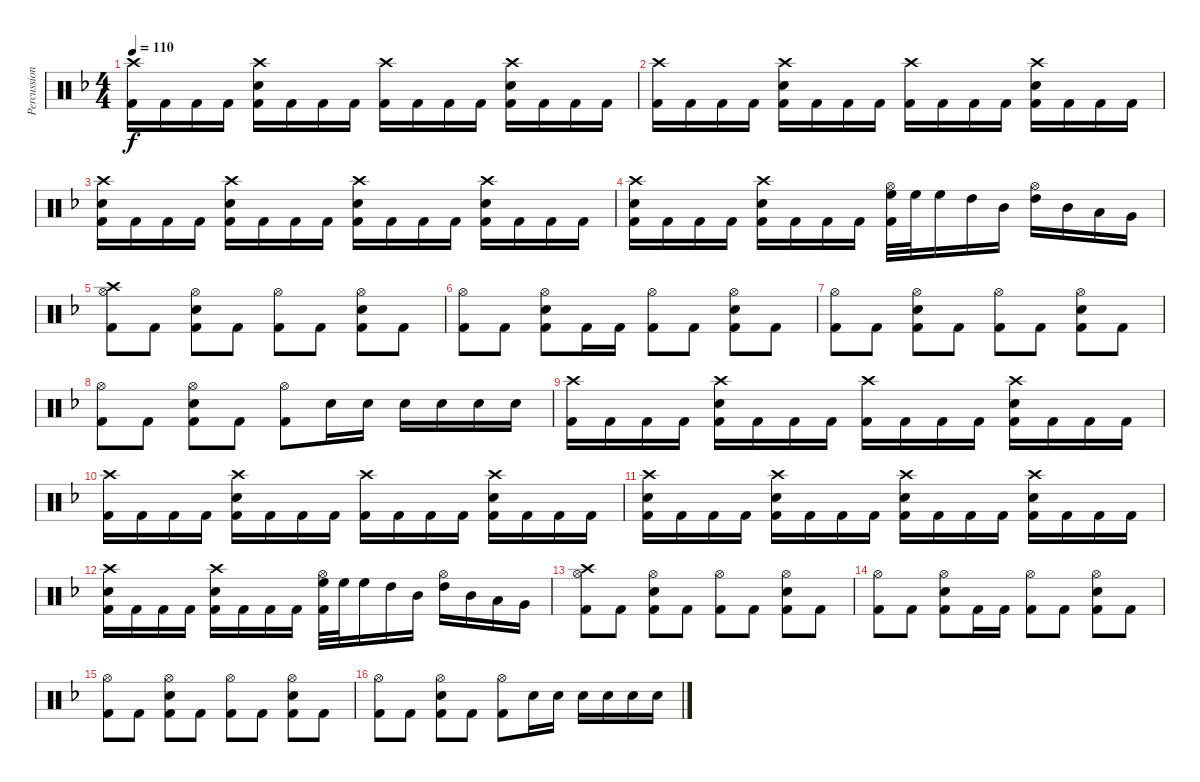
\track ("Percussion" "Percussion") {instrument percussion}
\staff {score}
\articulation defaults
\ts (4 4)
\tempo 110
\clef neutral
\ks dminor
("Crash high (hit)" "Kick (hit) 2").16{dy f} "Kick (hit) 2".16 "Kick (hit) 2".16 "Kick (hit) 2".16 ("Crash high (hit)" "Electric Snare (hit)" "Kick (hit) 2").16 "Kick (hit) 2".16 "Kick (hit) 2".16 "Kick (hit) 2".16 ("Crash high (hit)" "Kick (hit) 2").16 "Kick (hit) 2".16 "Kick (hit) 2".16 "Kick (hit) 2".16 ("Crash high (hit)" "Electric Snare (hit)" "Kick (hit) 2").16 "Kick (hit) 2".16 "Kick (hit) 2".16 "Kick (hit) 2".16 |
("Crash high (hit)" "Kick (hit) 2").16 "Kick (hit) 2".16 "Kick (hit) 2".16 "Kick (hit) 2".16 ("Crash high (hit)" "Electric Snare (hit)" "Kick (hit) 2").16 "Kick (hit) 2".16 "Kick (hit) 2".16 "Kick (hit) 2".16 ("Crash high (hit)" "Kick (hit) 2").16 "Kick (hit) 2".16 "Kick (hit) 2".16 "Kick (hit) 2".16 ("Crash high (hit)" "Electric Snare (hit)" "Kick (hit) 2").16 "Kick (hit) 2".16 "Kick (hit) 2".16 "Kick (hit) 2".16 |
("Crash high (hit)" "Electric Snare (hit)" "Kick (hit) 2").16 "Kick (hit) 2".16 "Kick (hit) 2".16 "Kick (hit) 2".16 ("Crash high (hit)" "Electric Snare (hit)" "Kick (hit) 2").16 "Kick (hit) 2".16 "Kick (hit) 2".16 "Kick (hit) 2".16 ("Crash high (hit)" "Electric Snare (hit)" "Kick (hit) 2").16 "Kick (hit) 2".16 "Kick (hit) 2".16 "Kick (hit) 2".16 ("Crash high (hit)" "Electric Snare (hit)" "Kick (hit) 2").16 "Kick (hit) 2".16 "Kick (hit) 2".16 "Kick (hit) 2".16 |
("Crash high (hit)" "Electric Snare (hit)" "Kick (hit) 2").16 "Kick (hit) 2".16 "Kick (hit) 2".16 "Kick (hit) 2".16 ("Crash high (hit)" "Electric Snare (hit)" "Kick (hit) 2").16 "Kick (hit) 2".16 "Kick (hit) 2".16 "Kick (hit) 2".16 ("Hi-Hat (open)" "High Floor Tom (hit)" "Kick (hit) 2").32 "High Floor Tom (hit)".32 "High Floor Tom (hit)".16 "High Tom (hit)".16 "Mid Tom (hit)".16 ("Hi-Hat (open)" "High Tom (hit)").16 "Mid Tom (hit)".16 "Low Tom (hit)".16 "Very Low Tom (hit)".16 |
("Crash high (hit)" "Hi-Hat (open)" "Kick (hit) 2").8 "Kick (hit) 2".8 ("Hi-Hat (open)" "Electric Snare (hit)" "Kick (hit) 2").8 "Kick (hit) 2".8 ("Hi-Hat (open)" "Kick (hit) 2").8 "Kick (hit) 2".8 ("Hi-Hat (open)" "Electric Snare (hit)" "Kick (hit) 2").8 "Kick (hit) 2".8 |
("Hi-Hat (open)" "Kick (hit) 2").8 "Kick (hit) 2".8 ("Hi-Hat (open)" "Electric Snare (hit)" "Kick (hit) 2").8 "Kick (hit) 2".16 "Kick (hit) 2".16 ("Hi-Hat (open)" "Kick (hit) 2").8 "Kick (hit) 2".8 ("Hi-Hat (open)" "Electric Snare (hit)" "Kick (hit) 2").8 "Kick (hit) 2".8 |
("Hi-Hat (open)" "Kick (hit) 2").8 "Kick (hit) 2".8 ("Hi-Hat (open)" "Electric Snare (hit)" "Kick (hit) 2").8 "Kick (hit) 2".8 ("Hi-Hat (open)" "Kick (hit) 2").8 "Kick (hit) 2".8 ("Hi-Hat (open)" "Electric Snare (hit)" "Kick (hit) 2").8 "Kick (hit) 2".8 |
("Hi-Hat (open)" "Kick (hit) 2").8 "Kick (hit) 2".8 ("Hi-Hat (open)" "Electric Snare (hit)" "Kick (hit) 2").8 "Kick (hit) 2".8 ("Hi-Hat (open)" "Kick (hit) 2").8 "Electric Snare (hit)".16 "Electric Snare (hit)".16 "Electric Snare (hit)".16 "Electric Snare (hit)".16 "Electric Snare (hit)".16 "Electric Snare (hit)".16 |
("Crash high (hit)" "Kick (hit) 2").16 "Kick (hit) 2".16 "Kick (hit) 2".16 "Kick (hit) 2".16 ("Crash high (hit)" "Electric Snare (hit)" "Kick (hit) 2").16 "Kick (hit) 2".16 "Kick (hit) 2".16 "Kick (hit) 2".16 ("Crash high (hit)" "Kick (hit) 2").16 "Kick (hit) 2".16 "Kick (hit) 2".16 "Kick (hit) 2".16 ("Crash high (hit)" "Electric Snare (hit)" "Kick (hit) 2").16 "Kick (hit) 2".16 "Kick (hit) 2".16 "Kick (hit) 2".16 |
("Crash high (hit)" "Kick (hit) 2").16 "Kick (hit) 2".16 "Kick (hit) 2".16 "Kick (hit) 2".16 ("Crash high (hit)" "Electric Snare (hit)" "Kick (hit) 2").16 "Kick (hit) 2".16 "Kick (hit) 2".16 "Kick (hit) 2".16 ("Crash high (hit)" "Kick (hit) 2").16 "Kick (hit) 2".16 "Kick (hit) 2".16 "Kick (hit) 2".16 ("Crash high (hit)" "Electric Snare (hit)" "Kick (hit) 2").16 "Kick (hit) 2".16 "Kick (hit) 2".16 "Kick (hit) 2".16 |
("Crash high (hit)" "Electric Snare (hit)" "Kick (hit) 2").16 "Kick (hit) 2".16 "Kick (hit) 2".16 "Kick (hit) 2".16 ("Crash high (hit)" "Electric Snare (hit)" "Kick (hit) 2").16 "Kick (hit) 2".16 "Kick (hit) 2".16 "Kick (hit) 2".16 ("Crash high (hit)" "Electric Snare (hit)" "Kick (hit) 2").16 "Kick (hit) 2".16 "Kick (hit) 2".16 "Kick (hit) 2".16 ("Crash high (hit)" "Electric Snare (hit)" "Kick (hit) 2").16 "Kick (hit) 2".16 "Kick (hit) 2".16 "Kick (hit) 2".16 |
("Crash high (hit)" "Electric Snare (hit)" "Kick (hit) 2").16 "Kick (hit) 2".16 "Kick (hit) 2".16 "Kick (hit) 2".16 ("Crash high (hit)" "Electric Snare (hit)" "Kick (hit) 2").16 "Kick (hit) 2".16 "Kick (hit) 2".16 "Kick (hit) 2".16 ("Hi-Hat (open)" "High Floor Tom (hit)" "Kick (hit) 2").32 "High Floor Tom (hit)".32 "High Floor Tom (hit)".16 "High Tom (hit)".16 "Mid Tom (hit)".16 ("Hi-Hat (open)" "High Tom (hit)").16 "Mid Tom (hit)".16 "Low Tom (hit)".16 "Very Low Tom (hit)".16 |
("Crash high (hit)" "Hi-Hat (open)" "Kick (hit) 2").8 "Kick (hit) 2".8 ("Hi-Hat (open)" "Electric Snare (hit)" "Kick (hit) 2").8 "Kick (hit) 2".8 ("Hi-Hat (open)" "Kick (hit) 2").8 "Kick (hit) 2".8 ("Hi-Hat (open)" "Electric Snare (hit)" "Kick (hit) 2").8 "Kick (hit) 2".8 |
("Hi-Hat (open)" "Kick (hit) 2").8 "Kick (hit) 2".8 ("Hi-Hat (open)" "Electric Snare (hit)" "Kick (hit) 2").8 "Kick (hit) 2".16 "Kick (hit) 2".16 ("Hi-Hat (open)" "Kick (hit) 2").8 "Kick (hit) 2".8 ("Hi-Hat (open)" "Electric Snare (hit)" "Kick (hit) 2").8 "Kick (hit) 2".8 |
("Hi-Hat (open)" "Kick (hit) 2").8 "Kick (hit) 2".8 ("Hi-Hat (open)" "Electric Snare (hit)" "Kick (hit) 2").8 "Kick (hit) 2".8 ("Hi-Hat (open)" "Kick (hit) 2").8 "Kick (hit) 2".8 ("Hi-Hat (open)" "Electric Snare (hit)" "Kick (hit) 2").8 "Kick (hit) 2".8 |
("Hi-Hat (open)" "Kick (hit) 2").8 "Kick (hit) 2".8 ("Hi-Hat (open)" "Electric Snare (hit)" "Kick (hit) 2").8 "Kick (hit) 2".8 ("Hi-Hat (open)" "Kick (hit) 2").8 "Electric Snare (hit)".16 "Electric Snare (hit)".16 "Electric Snare (hit)".16 "Electric Snare (hit)".16 "Electric Snare (hit)".16 "Electric Snare (hit)".16
